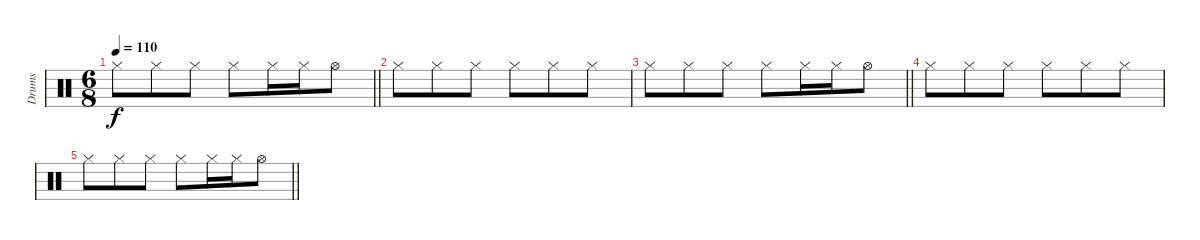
\track ("Drums" "Drums") {instrument percussion}
\staff {score}
\articulation defaults
\ts (6 8)
\tempo 110
\clef neutral
\barLineRight lightlight
\ks c "Hi-Hat (closed)".8{dy f volume 0} "Hi-Hat (closed)".8 "Hi-Hat (closed)".8 "Hi-Hat (closed)".8 "Hi-Hat (closed)".16 "Hi-Hat (closed)".16 "Hi-Hat (open)".8
|
"Hi-Hat (closed)".8 "Hi-Hat (closed)".8 "Hi-Hat (closed)".8 "Hi-Hat (closed)".8 "Hi-Hat (closed)".8 "Hi-Hat (closed)".8 |
\barLineRight lightlight "Hi-Hat (closed)".8 "Hi-Hat (closed)".8 "Hi-Hat (closed)".8 "Hi-Hat (closed)".8 "Hi-Hat (closed)".16 "Hi-Hat (closed)".16 "Hi-Hat (open)".8
|
"Hi-Hat (closed)".8 "Hi-Hat (closed)".8 "Hi-Hat (closed)".8 "Hi-Hat (closed)".8 "Hi-Hat (closed)".8 "Hi-Hat (closed)".8 |
\barLineRight lightlight "Hi-Hat (closed)".8 "Hi-Hat (closed)".8 "Hi-Hat (closed)".8 "Hi-Hat (closed)".8 "Hi-Hat (closed)".16 "Hi-Hat (closed)".16 "Hi-Hat (open)".8
